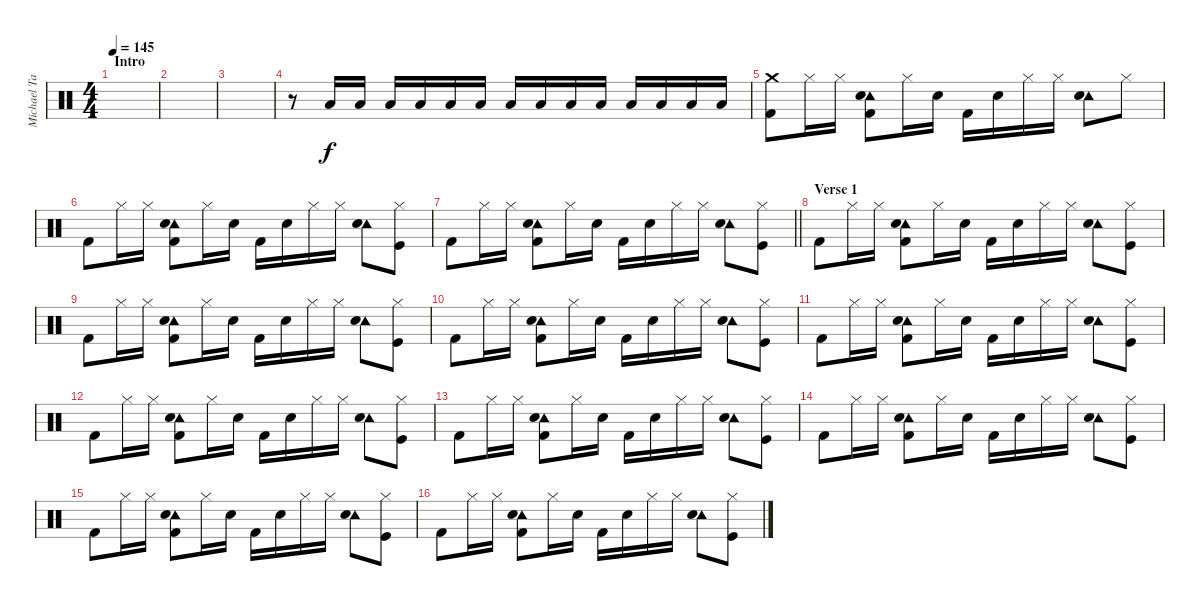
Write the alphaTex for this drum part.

\track ("Michael Tapper - Drums" "Michael Ta") {instrument percussion}
\staff {score}
\articulation defaults
\ts (4 4)
\section ("" "Intro")
\tempo 145
\clef neutral
\ks c
|
|
|
r.8 "Low Tom (hit)".16 "Low Tom (hit)".16 "Low Tom (hit)".16 "Low Tom (hit)".16 "Low Tom (hit)".16 "Low Tom (hit)".16 "Low Tom (hit)".16 "Low Tom (hit)".16 "Low Tom (hit)".16 "Low Tom (hit)".16 "Low Tom (hit)".16 "Low Tom (hit)".16 "Low Tom (hit)".16 "Low Tom (hit)".16 |
("Crash medium (hit)" "Kick (hit) 2").8 "Hi-Hat (closed)".16 "Hi-Hat (closed)".16 ("Tambourine (hit)" "Electric Snare (hit)" "Kick (hit) 2").8 "Hi-Hat (closed)".16 "Electric Snare (hit)".16 "Kick (hit) 2".16 "Electric Snare (hit)".16 "Hi-Hat (closed)".16 "Hi-Hat (closed)".16 ("Tambourine (hit)" "Electric Snare (hit)").8 "Hi-Hat (closed)".8 |
"Kick (hit) 2".8 "Hi-Hat (closed)".16 "Hi-Hat (closed)".16 ("Tambourine (hit)" "Electric Snare (hit)" "Kick (hit) 2").8 "Hi-Hat (closed)".16 "Electric Snare (hit)".16 "Kick (hit) 2".16 "Electric Snare (hit)".16 "Hi-Hat (closed)".16 "Hi-Hat (closed)".16 ("Tambourine (hit)" "Electric Snare (hit)").8 ("Hi-Hat (closed)" "Kick (hit)").8 |
\barLineRight lightlight "Kick (hit) 2".8 "Hi-Hat (closed)".16 "Hi-Hat (closed)".16
("Tambourine (hit)" "Electric Snare (hit)" "Kick (hit) 2").8 "Hi-Hat (closed)".16 "Electric Snare (hit)".16 "Kick (hit) 2".16 "Electric Snare (hit)".16 "Hi-Hat (closed)".16 "Hi-Hat (closed)".16 ("Tambourine (hit)" "Electric Snare (hit)").8 ("Hi-Hat (closed)" "Kick (hit)").8 |
\section ("" "Verse 1")
"Kick (hit) 2".8 "Hi-Hat (closed)".16 "Hi-Hat (closed)".16 ("Tambourine (hit)" "Electric Snare (hit)" "Kick (hit) 2").8 "Hi-Hat (closed)".16 "Electric Snare (hit)".16 "Kick (hit) 2".16 "Electric Snare (hit)".16 "Hi-Hat (closed)".16 "Hi-Hat (closed)".16 ("Tambourine (hit)" "Electric Snare (hit)").8 ("Hi-Hat (closed)" "Kick (hit)").8 |
"Kick (hit) 2".8 "Hi-Hat (closed)".16 "Hi-Hat (closed)".16 ("Tambourine (hit)" "Electric Snare (hit)" "Kick (hit) 2").8 "Hi-Hat (closed)".16 "Electric Snare (hit)".16 "Kick (hit) 2".16 "Electric Snare (hit)".16 "Hi-Hat (closed)".16 "Hi-Hat (closed)".16 ("Tambourine (hit)" "Electric Snare (hit)").8 ("Hi-Hat (closed)" "Kick (hit)").8 |
"Kick (hit) 2".8 "Hi-Hat (closed)".16 "Hi-Hat (closed)".16 ("Tambourine (hit)" "Electric Snare (hit)" "Kick (hit) 2").8 "Hi-Hat (closed)".16 "Electric Snare (hit)".16 "Kick (hit) 2".16 "Electric Snare (hit)".16 "Hi-Hat (closed)".16 "Hi-Hat (closed)".16 ("Tambourine (hit)" "Electric Snare (hit)").8 ("Hi-Hat (closed)" "Kick (hit)").8 |
"Kick (hit) 2".8 "Hi-Hat (closed)".16 "Hi-Hat (closed)".16 ("Tambourine (hit)" "Electric Snare (hit)" "Kick (hit) 2").8 "Hi-Hat (closed)".16 "Electric Snare (hit)".16 "Kick (hit) 2".16 "Electric Snare (hit)".16 "Hi-Hat (closed)".16 "Hi-Hat (closed)".16 ("Tambourine (hit)" "Electric Snare (hit)").8 ("Hi-Hat (closed)" "Kick (hit)").8 |
"Kick (hit) 2".8 "Hi-Hat (closed)".16 "Hi-Hat (closed)".16 ("Tambourine (hit)" "Electric Snare (hit)" "Kick (hit) 2").8 "Hi-Hat (closed)".16 "Electric Snare (hit)".16 "Kick (hit) 2".16 "Electric Snare (hit)".16 "Hi-Hat (closed)".16 "Hi-Hat (closed)".16 ("Tambourine (hit)" "Electric Snare (hit)").8 ("Hi-Hat (closed)" "Kick (hit)").8 |
"Kick (hit) 2".8 "Hi-Hat (closed)".16 "Hi-Hat (closed)".16 ("Tambourine (hit)" "Electric Snare (hit)" "Kick (hit) 2").8 "Hi-Hat (closed)".16 "Electric Snare (hit)".16 "Kick (hit) 2".16 "Electric Snare (hit)".16 "Hi-Hat (closed)".16 "Hi-Hat (closed)".16 ("Tambourine (hit)" "Electric Snare (hit)").8 ("Hi-Hat (closed)" "Kick (hit)").8 |
"Kick (hit) 2".8 "Hi-Hat (closed)".16 "Hi-Hat (closed)".16 ("Tambourine (hit)" "Electric Snare (hit)" "Kick (hit) 2").8 "Hi-Hat (closed)".16 "Electric Snare (hit)".16 "Kick (hit) 2".16 "Electric Snare (hit)".16 "Hi-Hat (closed)".16 "Hi-Hat (closed)".16 ("Tambourine (hit)" "Electric Snare (hit)").8 ("Hi-Hat (closed)" "Kick (hit)").8 |
"Kick (hit) 2".8 "Hi-Hat (closed)".16 "Hi-Hat (closed)".16 ("Tambourine (hit)" "Electric Snare (hit)" "Kick (hit) 2").8 "Hi-Hat (closed)".16 "Electric Snare (hit)".16 "Kick (hit) 2".16 "Electric Snare (hit)".16 "Hi-Hat (closed)".16 "Hi-Hat (closed)".16 ("Tambourine (hit)" "Electric Snare (hit)").8 ("Hi-Hat (closed)" "Kick (hit)").8 |
"Kick (hit) 2".8 "Hi-Hat (closed)".16 "Hi-Hat (closed)".16 ("Tambourine (hit)" "Electric Snare (hit)" "Kick (hit) 2").8 "Hi-Hat (closed)".16 "Electric Snare (hit)".16 "Kick (hit) 2".16 "Electric Snare (hit)".16 "Hi-Hat (closed)".16 "Hi-Hat (closed)".16 ("Tambourine (hit)" "Electric Snare (hit)").8 ("Hi-Hat (closed)" "Kick (hit)").8
